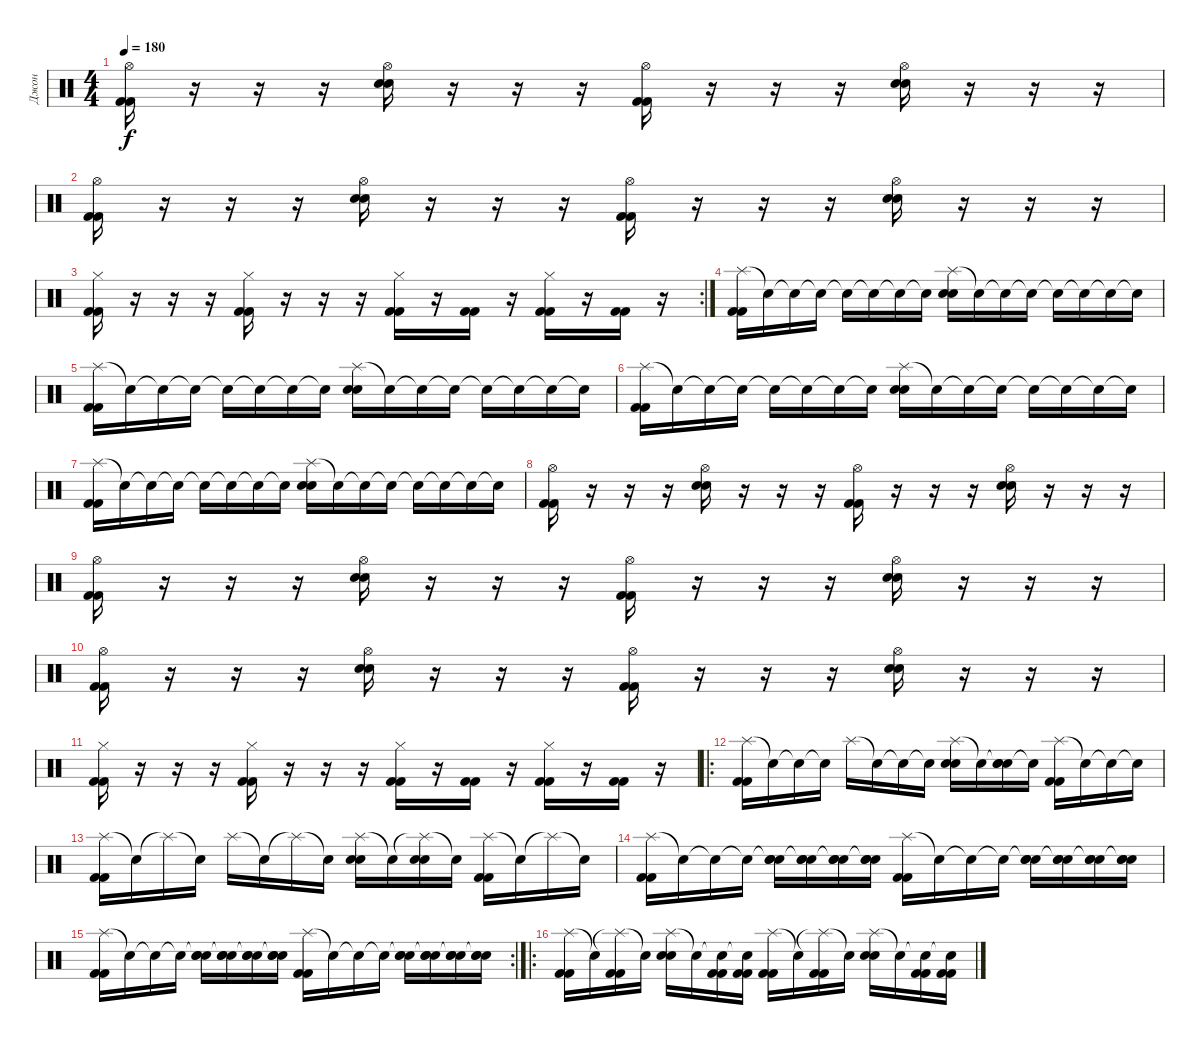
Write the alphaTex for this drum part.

\track ("Джон" "Джон") {instrument percussion}
\staff {score}
\articulation defaults
\ts (4 4)
\tempo 180
\clef neutral
\ks c
("Hi-Hat (open)" "Kick (hit) 2" "Kick (hit) 2").16{dy f} r.16 r.16 r.16 ("Hi-Hat (open)" "Electric Snare (hit)" "Electric Snare (hit)").16 r.16 r.16 r.16 ("Hi-Hat (open)" "Kick (hit) 2" "Kick (hit) 2").16 r.16 r.16 r.16 ("Hi-Hat (open)" "Electric Snare (hit)" "Electric Snare (hit)").16 r.16 r.16 r.16 |
("Hi-Hat (open)" "Kick (hit) 2" "Kick (hit) 2").16 r.16 r.16 r.16 ("Hi-Hat (open)" "Electric Snare (hit)" "Electric Snare (hit)").16 r.16 r.16 r.16 ("Hi-Hat (open)" "Kick (hit) 2" "Kick (hit) 2").16 r.16 r.16 r.16 ("Hi-Hat (open)" "Electric Snare (hit)" "Electric Snare (hit)").16 r.16 r.16 r.16 |
\rc 2
("Hi-Hat (closed)" "Kick (hit) 2" "Kick (hit) 2").16 r.16 r.16 r.16 ("Hi-Hat (closed)" "Kick (hit) 2" "Kick (hit) 2").16 r.16 r.16 r.16 ("Hi-Hat (closed)" "Kick (hit) 2" "Kick (hit) 2").16 r.16 ("Kick (hit) 2" "Kick (hit) 2").16 r.16 ("Hi-Hat (closed)" "Kick (hit) 2" "Kick (hit) 2").16 r.16 ("Kick (hit) 2" "Kick (hit) 2").16 r.16 |
("Splash (hit)" "Kick (hit) 2" "Kick (hit) 2").16 "Snare (hit)"{t}.16 "Snare (hit)"{t}.16 "Snare (hit)"{t}.16 "Snare (hit)"{t}.16 "Snare (hit)"{t}.16 "Snare (hit)"{t}.16 "Snare (hit)"{t}.16 ("Splash (hit)" "Electric Snare (hit)" "Electric Snare (hit)").16 "Snare (hit)"{t}.16 "Snare (hit)"{t}.16 "Snare (hit)"{t}.16 "Snare (hit)"{t}.16 "Snare (hit)"{t}.16 "Snare (hit)"{t}.16 "Snare (hit)"{t}.16 |
("Splash (hit)" "Kick (hit) 2" "Kick (hit) 2").16 "Snare (hit)"{t}.16 "Snare (hit)"{t}.16 "Snare (hit)"{t}.16 "Snare (hit)"{t}.16 "Snare (hit)"{t}.16 "Snare (hit)"{t}.16 "Snare (hit)"{t}.16 ("Splash (hit)" "Electric Snare (hit)" "Electric Snare (hit)").16 "Snare (hit)"{t}.16 "Snare (hit)"{t}.16 "Snare (hit)"{t}.16 "Snare (hit)"{t}.16 "Snare (hit)"{t}.16 "Snare (hit)"{t}.16 "Snare (hit)"{t}.16 |
("Splash (hit)" "Kick (hit) 2" "Kick (hit) 2").16 "Snare (hit)"{t}.16 "Snare (hit)"{t}.16 "Snare (hit)"{t}.16 "Snare (hit)"{t}.16 "Snare (hit)"{t}.16 "Snare (hit)"{t}.16 "Snare (hit)"{t}.16 ("Splash (hit)" "Electric Snare (hit)" "Electric Snare (hit)").16 "Snare (hit)"{t}.16 "Snare (hit)"{t}.16 "Snare (hit)"{t}.16 "Snare (hit)"{t}.16 "Snare (hit)"{t}.16 "Snare (hit)"{t}.16 "Snare (hit)"{t}.16 |
("Splash (hit)" "Kick (hit) 2" "Kick (hit) 2").16 "Snare (hit)"{t}.16 "Snare (hit)"{t}.16 "Snare (hit)"{t}.16 "Snare (hit)"{t}.16 "Snare (hit)"{t}.16 "Snare (hit)"{t}.16 "Snare (hit)"{t}.16 ("Splash (hit)" "Electric Snare (hit)" "Electric Snare (hit)").16 "Snare (hit)"{t}.16 "Snare (hit)"{t}.16 "Snare (hit)"{t}.16 "Snare (hit)"{t}.16 "Snare (hit)"{t}.16 "Snare (hit)"{t}.16 "Snare (hit)"{t}.16 |
("Hi-Hat (open)" "Kick (hit) 2" "Kick (hit) 2").16 r.16 r.16 r.16 ("Hi-Hat (open)" "Electric Snare (hit)" "Electric Snare (hit)").16 r.16 r.16 r.16 ("Hi-Hat (open)" "Kick (hit) 2" "Kick (hit) 2").16 r.16 r.16 r.16 ("Hi-Hat (open)" "Electric Snare (hit)" "Electric Snare (hit)").16 r.16 r.16 r.16 |
("Hi-Hat (open)" "Kick (hit) 2" "Kick (hit) 2").16 r.16 r.16 r.16 ("Hi-Hat (open)" "Electric Snare (hit)" "Electric Snare (hit)").16 r.16 r.16 r.16 ("Hi-Hat (open)" "Kick (hit) 2" "Kick (hit) 2").16 r.16 r.16 r.16 ("Hi-Hat (open)" "Electric Snare (hit)" "Electric Snare (hit)").16 r.16 r.16 r.16 |
("Hi-Hat (open)" "Kick (hit) 2" "Kick (hit) 2").16 r.16 r.16 r.16 ("Hi-Hat (open)" "Electric Snare (hit)" "Electric Snare (hit)").16 r.16 r.16 r.16 ("Hi-Hat (open)" "Kick (hit) 2" "Kick (hit) 2").16 r.16 r.16 r.16 ("Hi-Hat (open)" "Electric Snare (hit)" "Electric Snare (hit)").16 r.16 r.16 r.16 |
("Hi-Hat (closed)" "Kick (hit) 2" "Kick (hit) 2").16 r.16 r.16 r.16 ("Hi-Hat (closed)" "Kick (hit) 2" "Kick (hit) 2").16 r.16 r.16 r.16 ("Hi-Hat (closed)" "Kick (hit) 2" "Kick (hit) 2").16 r.16 ("Kick (hit) 2" "Kick (hit) 2").16 r.16 ("Hi-Hat (closed)" "Kick (hit) 2" "Kick (hit) 2").16 r.16 ("Kick (hit) 2" "Kick (hit) 2").16 r.16 |
\ro
("Splash (hit)" "Kick (hit) 2" "Kick (hit) 2").16 "Snare (hit)"{t}.16 "Snare (hit)"{t}.16 "Snare (hit)"{t}.16 "Splash (hit)".16 "Snare (hit)"{t}.16 "Snare (hit)"{t}.16 "Snare (hit)"{t}.16 ("Splash (hit)" "Electric Snare (hit)" "Electric Snare (hit)").16 "Snare (hit)"{t}.16 ("Snare (hit)"{t} "Electric Snare (hit)" "Electric Snare (hit)").16 "Snare (hit)"{t}.16 ("Splash (hit)" "Kick (hit) 2" "Kick (hit) 2").16 "Snare (hit)"{t}.16 "Snare (hit)"{t}.16 "Snare (hit)"{t}.16 |
("Splash (hit)" "Kick (hit) 2" "Kick (hit) 2").16 "Snare (hit)"{t}.16 "Splash (hit)"{t}.16 "Snare (hit)"{t}.16 "Splash (hit)".16 "Snare (hit)"{t}.16 "Splash (hit)"{t}.16 "Snare (hit)"{t}.16 ("Splash (hit)" "Electric Snare (hit)" "Electric Snare (hit)").16 "Snare (hit)"{t}.16 ("Splash (hit)"{t} "Electric Snare (hit)" "Electric Snare (hit)").16 "Snare (hit)"{t}.16 ("Splash (hit)" "Kick (hit) 2" "Kick (hit) 2").16 "Snare (hit)"{t}.16 "Splash (hit)"{t}.16 "Snare (hit)"{t}.16 |
("Splash (hit)" "Kick (hit) 2" "Kick (hit) 2").16 "Snare (hit)"{t}.16 "Snare (hit)"{t}.16 "Snare (hit)"{t}.16 ("Snare (hit)"{t} "Electric Snare (hit)" "Electric Snare (hit)").16 ("Snare (hit)"{t} "Electric Snare (hit)" "Electric Snare (hit)").16 ("Snare (hit)"{t} "Electric Snare (hit)" "Electric Snare (hit)").16 ("Snare (hit)"{t} "Electric Snare (hit)" "Electric Snare (hit)").16 ("Splash (hit)" "Kick (hit) 2" "Kick (hit) 2").16 "Snare (hit)"{t}.16 "Snare (hit)"{t}.16 "Snare (hit)"{t}.16 ("Snare (hit)"{t} "Electric Snare (hit)" "Electric Snare (hit)").16 ("Snare (hit)"{t} "Electric Snare (hit)" "Electric Snare (hit)").16 ("Snare (hit)"{t} "Electric Snare (hit)" "Electric Snare (hit)").16 ("Snare (hit)"{t} "Electric Snare (hit)" "Electric Snare (hit)").16 |
\rc 2
("Splash (hit)" "Kick (hit) 2" "Kick (hit) 2").16 "Snare (hit)"{t}.16 "Snare (hit)"{t}.16 "Snare (hit)"{t}.16 ("Snare (hit)"{t} "Electric Snare (hit)" "Electric Snare (hit)").16 ("Snare (hit)"{t} "Electric Snare (hit)" "Electric Snare (hit)").16 ("Snare (hit)"{t} "Electric Snare (hit)" "Electric Snare (hit)").16 ("Snare (hit)"{t} "Electric Snare (hit)" "Electric Snare (hit)").16 ("Splash (hit)" "Kick (hit) 2" "Kick (hit) 2").16 "Snare (hit)"{t}.16 "Snare (hit)"{t}.16 "Snare (hit)"{t}.16 ("Snare (hit)"{t} "Electric Snare (hit)" "Electric Snare (hit)").16 ("Snare (hit)"{t} "Electric Snare (hit)" "Electric Snare (hit)").16 ("Snare (hit)"{t} "Electric Snare (hit)" "Electric Snare (hit)").16 ("Snare (hit)"{t} "Electric Snare (hit)" "Electric Snare (hit)").16 |
\ro
("Splash (hit)" "Kick (hit) 2" "Kick (hit) 2").16 "Snare (hit)"{t}.16 ("Splash (hit)"{t} "Kick (hit) 2" "Kick (hit) 2").16 "Snare (hit)"{t}.16 ("Splash (hit)" "Electric Snare (hit)" "Electric Snare (hit)").16 "Snare (hit)"{t}.16 ("Snare (hit)"{t} "Kick (hit) 2" "Kick (hit) 2").16 ("Snare (hit)"{t} "Kick (hit) 2" "Kick (hit) 2").16 ("Splash (hit)" "Kick (hit) 2" "Kick (hit) 2").16 "Snare (hit)"{t}.16 ("Splash (hit)"{t} "Kick (hit) 2" "Kick (hit) 2").16 "Snare (hit)"{t}.16 ("Splash (hit)" "Electric Snare (hit)" "Electric Snare (hit)").16 "Snare (hit)"{t}.16 ("Snare (hit)"{t} "Kick (hit) 2" "Kick (hit) 2").16 ("Snare (hit)"{t} "Kick (hit) 2" "Kick (hit) 2").16
